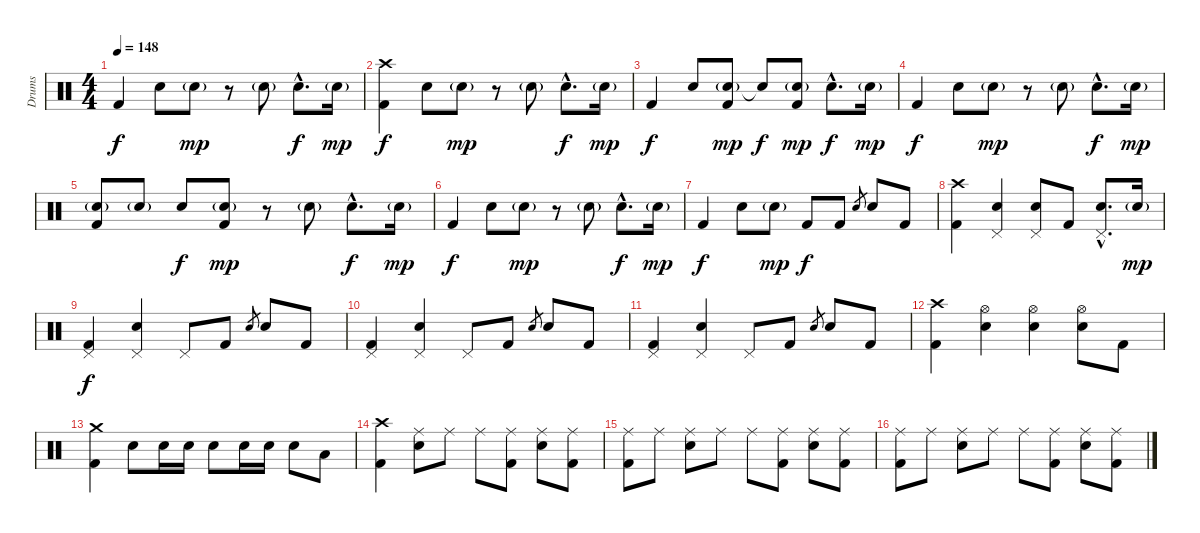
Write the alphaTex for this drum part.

\track ("Drums" "Drums") {instrument percussion}
\staff {score}
\articulation defaults
\ts (4 4)
\tempo 148
\clef neutral
\ks c "Kick (hit) 2".4{dy f} "Electric Snare (hit)".8 "Electric Snare (hit)"{g}.8{dy mp}
r.8 "Electric Snare (hit)"{g}.8 "Electric Snare (hit)"{hac}.8{d dy f} "Electric Snare (hit)"{g}.16{dy mp} |
("Crash high (hit)" "Kick (hit) 2").4{dy f} "Electric Snare (hit)".8 "Electric Snare (hit)"{g}.8{dy mp} r.8 "Electric Snare (hit)"{g}.8 "Electric Snare (hit)"{hac}.8{d dy f} "Electric Snare (hit)"{g}.16{dy mp} |
"Kick (hit) 2".4{dy f} "Electric Snare (hit)".8 ("Electric Snare (hit)"{g} "Kick (hit) 2").8{dy mp} "Snare (hit)"{t}.8{dy f} ("Electric Snare (hit)"{g} "Kick (hit) 2").8{dy mp} "Electric Snare (hit)"{hac}.8{d dy f} "Electric Snare (hit)"{g}.16{dy mp} |
"Kick (hit) 2".4{dy f} "Electric Snare (hit)".8 "Electric Snare (hit)"{g}.8{dy mp} r.8 "Electric Snare (hit)"{g}.8 "Electric Snare (hit)"{hac}.8{d dy f} "Electric Snare (hit)"{g}.16{dy mp} |
("Electric Snare (hit)"{g} "Kick (hit) 2").8 "Electric Snare (hit)"{g}.8 "Electric Snare (hit)".8{dy f} ("Electric Snare (hit)"{g} "Kick (hit) 2").8{dy mp} r.8 "Electric Snare (hit)"{g}.8 "Electric Snare (hit)"{hac}.8{d dy f} "Electric Snare (hit)"{g}.16{dy mp} |
"Kick (hit) 2".4{dy f} "Electric Snare (hit)".8 "Electric Snare (hit)"{g}.8{dy mp} r.8 "Electric Snare (hit)"{g}.8 "Electric Snare (hit)"{hac}.8{d dy f} "Electric Snare (hit)"{g}.16{dy mp} |
"Kick (hit) 2".4{dy f} "Electric Snare (hit)".8 "Electric Snare (hit)"{g}.8{dy mp} "Kick (hit) 2".8{dy f} "Kick (hit) 2".8 "Electric Snare (hit)".8{gr} "Electric Snare (hit)".8 "Kick (hit) 2".8 |
("Crash high (hit)" "Kick (hit) 2").4 ("Pedal Hi-Hat (hit)" "Electric Snare (hit)").4 ("Pedal Hi-Hat (hit)" "Electric Snare (hit)").8 "Kick (hit) 2".8 ("Pedal Hi-Hat (hit)"{hac} "Electric Snare (hit)"{hac}).8{d} "Electric Snare (hit)"{g}.16{dy mp} |
("Pedal Hi-Hat (hit)" "Kick (hit) 2").4{dy f} ("Pedal Hi-Hat (hit)" "Electric Snare (hit)").4 "Pedal Hi-Hat (hit)".8 "Kick (hit) 2".8 "Electric Snare (hit)".8{gr} "Electric Snare (hit)".8 "Kick (hit) 2".8 |
("Pedal Hi-Hat (hit)" "Kick (hit) 2").4 ("Pedal Hi-Hat (hit)" "Electric Snare (hit)").4 "Pedal Hi-Hat (hit)".8 "Kick (hit) 2".8 "Electric Snare (hit)".8{gr} "Electric Snare (hit)".8 "Kick (hit) 2".8 |
("Pedal Hi-Hat (hit)" "Kick (hit) 2").4 ("Pedal Hi-Hat (hit)" "Electric Snare (hit)").4 "Pedal Hi-Hat (hit)".8 "Kick (hit) 2".8 "Electric Snare (hit)".8{gr} "Electric Snare (hit)".8 "Kick (hit) 2".8 |
("Crash high (hit)" "Kick (hit) 2").4 ("Hi-Hat (open)" "Electric Snare (hit)").4 ("Hi-Hat (open)" "Electric Snare (hit)").4 ("Hi-Hat (open)" "Electric Snare (hit)").8 "Kick (hit) 2".8 |
("Crash medium (hit)" "Kick (hit) 2").4 "Electric Snare (hit)".8 "Electric Snare (hit)".16 "Electric Snare (hit)".16 "Electric Snare (hit)".8 "Electric Snare (hit)".16 "Electric Snare (hit)".16 "Electric Snare (hit)".8 "Low Tom (hit)".8 |
("Crash high (hit)" "Kick (hit) 2").4 ("Ride (middle)" "Electric Snare (hit)").8 "Ride (middle)".8 "Ride (middle)".8 ("Ride (middle)" "Kick (hit) 2").8 ("Ride (middle)" "Electric Snare (hit)").8 ("Ride (middle)" "Kick (hit) 2").8 |
("Ride (middle)" "Kick (hit) 2").8 "Ride (middle)".8 ("Ride (middle)" "Electric Snare (hit)").8 "Ride (middle)".8 "Ride (middle)".8 ("Ride (middle)" "Kick (hit) 2").8 ("Ride (middle)" "Electric Snare (hit)").8 ("Ride (middle)" "Kick (hit) 2").8 |
("Ride (middle)" "Kick (hit) 2").8 "Ride (middle)".8 ("Ride (middle)" "Electric Snare (hit)").8 "Ride (middle)".8 "Ride (middle)".8 ("Ride (middle)" "Kick (hit) 2").8 ("Ride (middle)" "Electric Snare (hit)").8 ("Ride (middle)" "Kick (hit) 2").8
